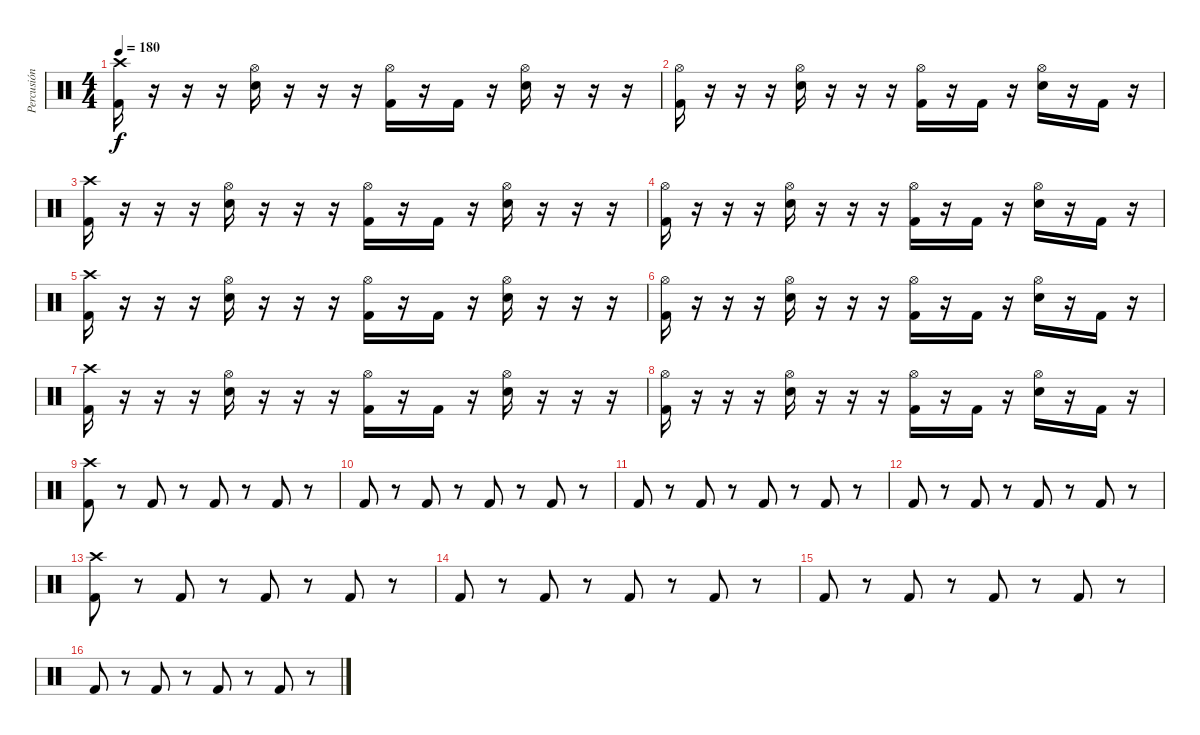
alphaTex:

\track ("Percusión" "Percusión") {instrument percussion}
\staff {score}
\articulation defaults
\ts (4 4)
\tempo 180
\clef neutral
\ks c
("Crash high (hit)" "Kick (hit) 2").16{dy f} r.16 r.16 r.16 ("Hi-Hat (open)" "Electric Snare (hit)").16 r.16 r.16 r.16 ("Hi-Hat (open)" "Kick (hit) 2").16 r.16 "Kick (hit) 2".16 r.16 ("Hi-Hat (open)" "Electric Snare (hit)").16 r.16 r.16 r.16 |
("Hi-Hat (open)" "Kick (hit) 2").16 r.16 r.16 r.16 ("Hi-Hat (open)" "Electric Snare (hit)").16 r.16 r.16 r.16 ("Hi-Hat (open)" "Kick (hit) 2").16 r.16 "Kick (hit) 2".16 r.16 ("Hi-Hat (open)" "Electric Snare (hit)").16 r.16 "Kick (hit) 2".16 r.16 |
("Crash high (hit)" "Kick (hit) 2").16 r.16 r.16 r.16 ("Hi-Hat (open)" "Electric Snare (hit)").16 r.16 r.16 r.16 ("Hi-Hat (open)" "Kick (hit) 2").16 r.16 "Kick (hit) 2".16 r.16 ("Hi-Hat (open)" "Electric Snare (hit)").16 r.16 r.16 r.16 |
("Hi-Hat (open)" "Kick (hit) 2").16 r.16 r.16 r.16 ("Hi-Hat (open)" "Electric Snare (hit)").16 r.16 r.16 r.16 ("Hi-Hat (open)" "Kick (hit) 2").16 r.16 "Kick (hit) 2".16 r.16 ("Hi-Hat (open)" "Electric Snare (hit)").16 r.16 "Kick (hit) 2".16 r.16 |
("Crash high (hit)" "Kick (hit) 2").16 r.16 r.16 r.16 ("Hi-Hat (open)" "Electric Snare (hit)").16 r.16 r.16 r.16 ("Hi-Hat (open)" "Kick (hit) 2").16 r.16 "Kick (hit) 2".16 r.16 ("Hi-Hat (open)" "Electric Snare (hit)").16 r.16 r.16 r.16 |
("Hi-Hat (open)" "Kick (hit) 2").16 r.16 r.16 r.16 ("Hi-Hat (open)" "Electric Snare (hit)").16 r.16 r.16 r.16 ("Hi-Hat (open)" "Kick (hit) 2").16 r.16 "Kick (hit) 2".16 r.16 ("Hi-Hat (open)" "Electric Snare (hit)").16 r.16 "Kick (hit) 2".16 r.16 |
("Crash high (hit)" "Kick (hit) 2").16 r.16 r.16 r.16 ("Hi-Hat (open)" "Electric Snare (hit)").16 r.16 r.16 r.16 ("Hi-Hat (open)" "Kick (hit) 2").16 r.16 "Kick (hit) 2".16 r.16 ("Hi-Hat (open)" "Electric Snare (hit)").16 r.16 r.16 r.16 |
("Hi-Hat (open)" "Kick (hit) 2").16 r.16 r.16 r.16 ("Hi-Hat (open)" "Electric Snare (hit)").16 r.16 r.16 r.16 ("Hi-Hat (open)" "Kick (hit) 2").16 r.16 "Kick (hit) 2".16 r.16 ("Hi-Hat (open)" "Electric Snare (hit)").16 r.16 "Kick (hit) 2".16 r.16 |
("Crash high (hit)" "Kick (hit) 2").8 r.8 "Kick (hit) 2".8 r.8 "Kick (hit) 2".8 r.8 "Kick (hit) 2".8 r.8 |
"Kick (hit) 2".8 r.8 "Kick (hit) 2".8 r.8 "Kick (hit) 2".8 r.8 "Kick (hit) 2".8 r.8 |
"Kick (hit) 2".8 r.8 "Kick (hit) 2".8 r.8 "Kick (hit) 2".8 r.8 "Kick (hit) 2".8 r.8 |
"Kick (hit) 2".8 r.8 "Kick (hit) 2".8 r.8 "Kick (hit) 2".8 r.8 "Kick (hit) 2".8 r.8 |
("Crash high (hit)" "Kick (hit) 2").8 r.8 "Kick (hit) 2".8 r.8 "Kick (hit) 2".8 r.8 "Kick (hit) 2".8 r.8 |
"Kick (hit) 2".8 r.8 "Kick (hit) 2".8 r.8 "Kick (hit) 2".8 r.8 "Kick (hit) 2".8 r.8 |
"Kick (hit) 2".8 r.8 "Kick (hit) 2".8 r.8 "Kick (hit) 2".8 r.8 "Kick (hit) 2".8 r.8 |
"Kick (hit) 2".8 r.8 "Kick (hit) 2".8 r.8 "Kick (hit) 2".8 r.8 "Kick (hit) 2".8 r.8
